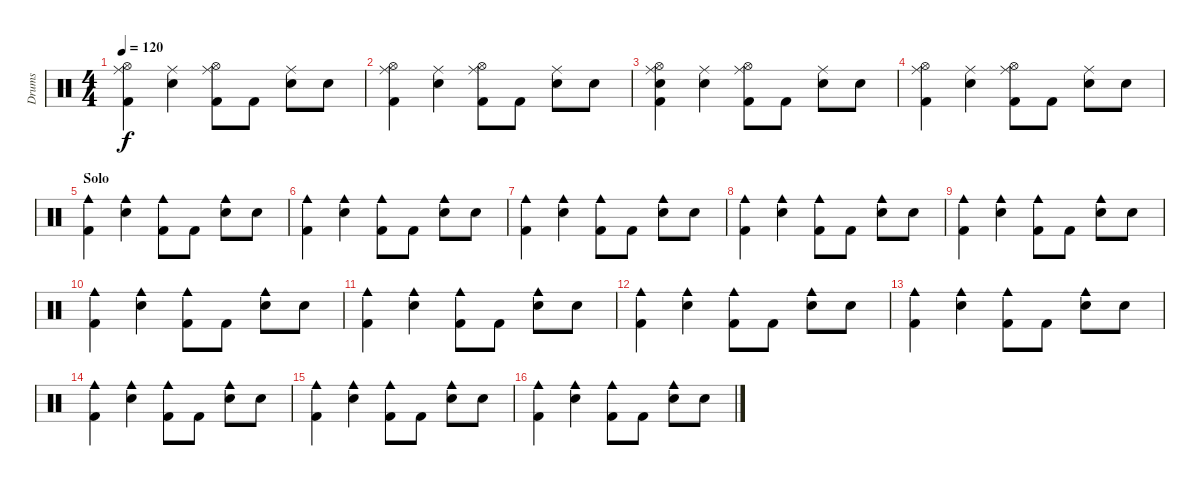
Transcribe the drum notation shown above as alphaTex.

\track ("Drums" "Drums") {instrument percussion}
\staff {score}
\articulation defaults
\ts (4 4)
\tempo 120
\clef neutral
\ks c
("Ride (middle)" "Kick (hit) 2" "Hi-Hat (open)").4{dy f} ("Ride (middle)" "Snare (hit) 2").4 ("Ride (middle)" "Kick (hit) 2" "Hi-Hat (open)").8 "Kick (hit) 2".8 ("Ride (middle)" "Snare (hit) 2").8 "Snare (hit) 2".8 |
("Ride (middle)" "Kick (hit) 2" "Hi-Hat (open)").4 ("Ride (middle)" "Snare (hit) 2").4 ("Ride (middle)" "Kick (hit) 2" "Hi-Hat (open)").8 "Kick (hit) 2".8 ("Ride (middle)" "Snare (hit) 2").8 "Snare (hit) 2".8 |
("Ride (middle)" "Kick (hit) 2" "Hi-Hat (open)" "Snare (hit)").4 ("Ride (middle)" "Snare (hit) 2").4 ("Ride (middle)" "Kick (hit) 2" "Hi-Hat (open)").8 "Kick (hit) 2".8 ("Ride (middle)" "Snare (hit) 2").8 "Snare (hit) 2".8 |
("Ride (middle)" "Kick (hit) 2" "Hi-Hat (open)").4 ("Ride (middle)" "Snare (hit) 2").4 ("Ride (middle)" "Kick (hit) 2" "Hi-Hat (open)").8 "Kick (hit) 2".8 ("Ride (middle)" "Snare (hit) 2").8 "Snare (hit) 2".8 |
\section ("" "Solo")
("Cowbell medium (hit)" "Kick (hit) 2").4 ("Cowbell medium (hit)" "Snare (hit) 2").4 ("Cowbell medium (hit)" "Kick (hit) 2").8 "Kick (hit) 2".8 ("Cowbell medium (hit)" "Snare (hit) 2").8 "Snare (hit) 2".8 |
("Cowbell medium (hit)" "Kick (hit) 2").4 ("Cowbell medium (hit)" "Snare (hit) 2").4 ("Cowbell medium (hit)" "Kick (hit) 2").8 "Kick (hit) 2".8 ("Cowbell medium (hit)" "Snare (hit) 2").8 "Snare (hit) 2".8 |
("Cowbell medium (hit)" "Kick (hit) 2").4 ("Cowbell medium (hit)" "Snare (hit) 2").4 ("Cowbell medium (hit)" "Kick (hit) 2").8 "Kick (hit) 2".8 ("Cowbell medium (hit)" "Snare (hit) 2").8 "Snare (hit) 2".8 |
("Cowbell medium (hit)" "Kick (hit) 2").4 ("Cowbell medium (hit)" "Snare (hit) 2").4 ("Cowbell medium (hit)" "Kick (hit) 2").8 "Kick (hit) 2".8 ("Cowbell medium (hit)" "Snare (hit) 2").8 "Snare (hit) 2".8 |
("Cowbell medium (hit)" "Kick (hit) 2").4 ("Cowbell medium (hit)" "Snare (hit) 2").4 ("Cowbell medium (hit)" "Kick (hit) 2").8 "Kick (hit) 2".8 ("Cowbell medium (hit)" "Snare (hit) 2").8 "Snare (hit) 2".8 |
("Cowbell medium (hit)" "Kick (hit) 2").4 ("Cowbell medium (hit)" "Snare (hit) 2").4 ("Cowbell medium (hit)" "Kick (hit) 2").8 "Kick (hit) 2".8 ("Cowbell medium (hit)" "Snare (hit) 2").8 "Snare (hit) 2".8 |
("Cowbell medium (hit)" "Kick (hit) 2").4 ("Cowbell medium (hit)" "Snare (hit) 2").4 ("Cowbell medium (hit)" "Kick (hit) 2").8 "Kick (hit) 2".8 ("Cowbell medium (hit)" "Snare (hit) 2").8 "Snare (hit) 2".8 |
("Cowbell medium (hit)" "Kick (hit) 2").4 ("Cowbell medium (hit)" "Snare (hit) 2").4 ("Cowbell medium (hit)" "Kick (hit) 2").8 "Kick (hit) 2".8 ("Cowbell medium (hit)" "Snare (hit) 2").8 "Snare (hit) 2".8 |
("Cowbell medium (hit)" "Kick (hit) 2").4 ("Cowbell medium (hit)" "Snare (hit) 2").4 ("Cowbell medium (hit)" "Kick (hit) 2").8 "Kick (hit) 2".8 ("Cowbell medium (hit)" "Snare (hit) 2").8 "Snare (hit) 2".8 |
("Cowbell medium (hit)" "Kick (hit) 2").4 ("Cowbell medium (hit)" "Snare (hit) 2").4 ("Cowbell medium (hit)" "Kick (hit) 2").8 "Kick (hit) 2".8 ("Cowbell medium (hit)" "Snare (hit) 2").8 "Snare (hit) 2".8 |
("Cowbell medium (hit)" "Kick (hit) 2").4 ("Cowbell medium (hit)" "Snare (hit) 2").4 ("Cowbell medium (hit)" "Kick (hit) 2").8 "Kick (hit) 2".8 ("Cowbell medium (hit)" "Snare (hit) 2").8 "Snare (hit) 2".8 |
("Cowbell medium (hit)" "Kick (hit) 2").4 ("Cowbell medium (hit)" "Snare (hit) 2").4 ("Cowbell medium (hit)" "Kick (hit) 2").8 "Kick (hit) 2".8 ("Cowbell medium (hit)" "Snare (hit) 2").8 "Snare (hit) 2".8
